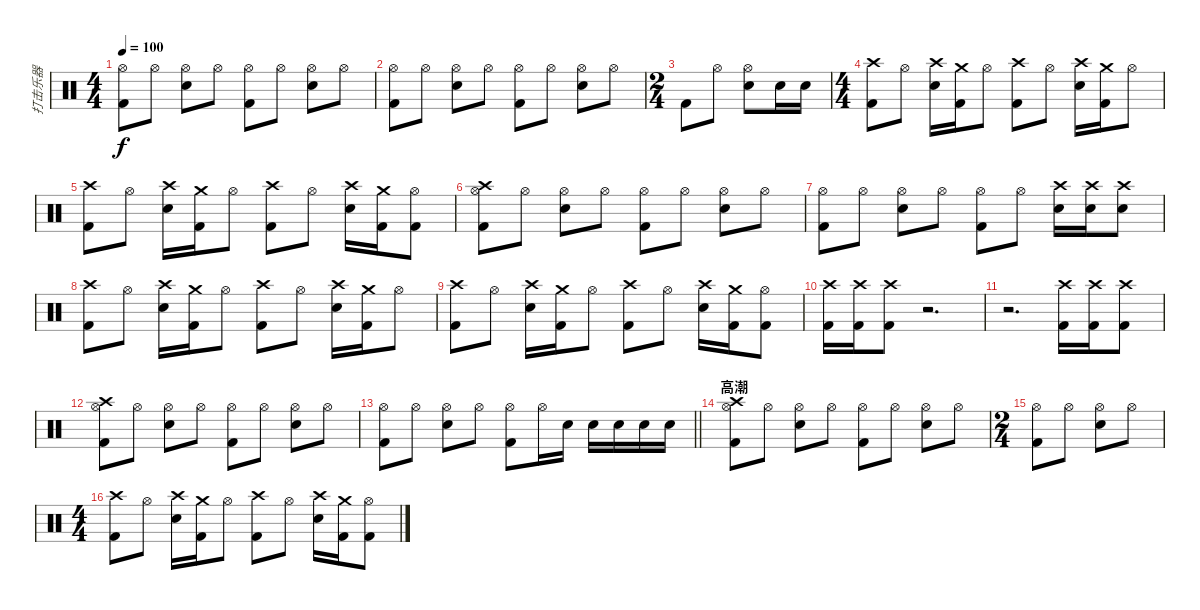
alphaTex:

\track ("打击乐器" "打击乐器") {instrument percussion}
\staff {score}
\articulation defaults
\ts (4 4)
\tempo 100
\clef neutral
\ks c
("Kick (hit) 2" "Hi-Hat (open)").8{dy f} "Hi-Hat (open)".8 ("Electric Snare (hit)" "Hi-Hat (open)").8 "Hi-Hat (open)".8 ("Kick (hit) 2" "Hi-Hat (open)").8 "Hi-Hat (open)".8 ("Electric Snare (hit)" "Hi-Hat (open)").8 "Hi-Hat (open)".8 |
("Kick (hit) 2" "Hi-Hat (open)").8 "Hi-Hat (open)".8 ("Electric Snare (hit)" "Hi-Hat (open)").8 "Hi-Hat (open)".8 ("Kick (hit) 2" "Hi-Hat (open)").8 "Hi-Hat (open)".8 ("Electric Snare (hit)" "Hi-Hat (open)").8 "Hi-Hat (open)".8 |
\ts (2 4)
"Kick (hit) 2".8 "Hi-Hat (open)".8 ("Electric Snare (hit)" "Hi-Hat (open)").8 "Electric Snare (hit)".16 "Electric Snare (hit)".16 |
\ts (4 4)
("Crash high (hit)" "Kick (hit) 2").8 "Hi-Hat (open)".8 ("Electric Snare (hit)" "Crash high (hit)").16 ("Kick (hit) 2" "Crash medium (hit)").16 "Hi-Hat (open)".8 ("Crash high (hit)" "Kick (hit) 2").8 "Hi-Hat (open)".8 ("Electric Snare (hit)" "Crash high (hit)").16 ("Kick (hit) 2" "Crash medium (hit)").16 "Hi-Hat (open)".8 |
("Crash high (hit)" "Kick (hit) 2").8 "Hi-Hat (open)".8 ("Electric Snare (hit)" "Crash high (hit)").16 ("Kick (hit) 2" "Crash medium (hit)").16 "Hi-Hat (open)".8 ("Crash high (hit)" "Kick (hit) 2").8 "Hi-Hat (open)".8 ("Electric Snare (hit)" "Crash high (hit)").16 ("Kick (hit) 2" "Crash medium (hit)").16 ("Hi-Hat (open)" "Kick (hit) 2").8 |
("Kick (hit) 2" "Hi-Hat (open)" "Crash high (hit)").8 "Hi-Hat (open)".8 ("Electric Snare (hit)" "Hi-Hat (open)").8 "Hi-Hat (open)".8 ("Kick (hit) 2" "Hi-Hat (open)").8 "Hi-Hat (open)".8 ("Electric Snare (hit)" "Hi-Hat (open)").8 "Hi-Hat (open)".8 |
("Kick (hit) 2" "Hi-Hat (open)").8 "Hi-Hat (open)".8 ("Electric Snare (hit)" "Hi-Hat (open)").8 "Hi-Hat (open)".8 ("Kick (hit) 2" "Hi-Hat (open)").8 "Hi-Hat (open)".8 ("Electric Snare (hit)" "Crash high (hit)").16 ("Electric Snare (hit)" "Crash high (hit)").16 ("Electric Snare (hit)" "Crash high (hit)").8 |
("Crash high (hit)" "Kick (hit) 2").8 "Hi-Hat (open)".8 ("Electric Snare (hit)" "Crash high (hit)").16 ("Kick (hit) 2" "Crash medium (hit)").16 "Hi-Hat (open)".8 ("Crash high (hit)" "Kick (hit) 2").8 "Hi-Hat (open)".8 ("Electric Snare (hit)" "Crash high (hit)").16 ("Kick (hit) 2" "Crash medium (hit)").16 "Hi-Hat (open)".8 |
("Crash high (hit)" "Kick (hit) 2").8 "Hi-Hat (open)".8 ("Electric Snare (hit)" "Crash high (hit)").16 ("Kick (hit) 2" "Crash medium (hit)").16 "Hi-Hat (open)".8 ("Crash high (hit)" "Kick (hit) 2").8 "Hi-Hat (open)".8 ("Electric Snare (hit)" "Crash high (hit)").16 ("Kick (hit) 2" "Crash medium (hit)").16 ("Hi-Hat (open)" "Kick (hit) 2").8 |
("Kick (hit) 2" "Crash high (hit)").16 ("Kick (hit) 2" "Crash high (hit)").16 ("Crash high (hit)" "Kick (hit) 2").8 r.2{d} |
r.2{d} ("Kick (hit) 2" "Crash high (hit)").16 ("Kick (hit) 2" "Crash high (hit)").16 ("Crash high (hit)" "Kick (hit) 2").8 |
("Kick (hit) 2" "Hi-Hat (open)" "Crash high (hit)").8 "Hi-Hat (open)".8 ("Electric Snare (hit)" "Hi-Hat (open)").8 "Hi-Hat (open)".8 ("Kick (hit) 2" "Hi-Hat (open)").8 "Hi-Hat (open)".8 ("Electric Snare (hit)" "Hi-Hat (open)").8 "Hi-Hat (open)".8 |
\barLineRight lightlight
("Kick (hit) 2" "Hi-Hat (open)").8 "Hi-Hat (open)".8 ("Electric Snare (hit)" "Hi-Hat (open)").8 "Hi-Hat (open)".8 ("Kick (hit) 2" "Hi-Hat (open)").8 "Hi-Hat (open)".16 "Electric Snare (hit)".16 "Electric Snare (hit)".16 "Electric Snare (hit)".16 "Electric Snare (hit)".16 "Electric Snare (hit)".16 |
\section ("" "高潮")
("Kick (hit) 2" "Hi-Hat (open)" "Crash high (hit)").8 "Hi-Hat (open)".8 ("Electric Snare (hit)" "Hi-Hat (open)").8 "Hi-Hat (open)".8 ("Kick (hit) 2" "Hi-Hat (open)").8 "Hi-Hat (open)".8 ("Electric Snare (hit)" "Hi-Hat (open)").8 "Hi-Hat (open)".8 |
\ts (2 4)
("Kick (hit) 2" "Hi-Hat (open)").8 "Hi-Hat (open)".8 ("Electric Snare (hit)" "Hi-Hat (open)").8 "Hi-Hat (open)".8 |
\ts (4 4)
("Crash high (hit)" "Kick (hit) 2").8 "Hi-Hat (open)".8 ("Electric Snare (hit)" "Crash high (hit)").16 ("Kick (hit) 2" "Crash medium (hit)").16 "Hi-Hat (open)".8 ("Crash high (hit)" "Kick (hit) 2").8 "Hi-Hat (open)".8 ("Electric Snare (hit)" "Crash high (hit)").16 ("Kick (hit) 2" "Crash medium (hit)").16 ("Hi-Hat (open)" "Kick (hit) 2").8
